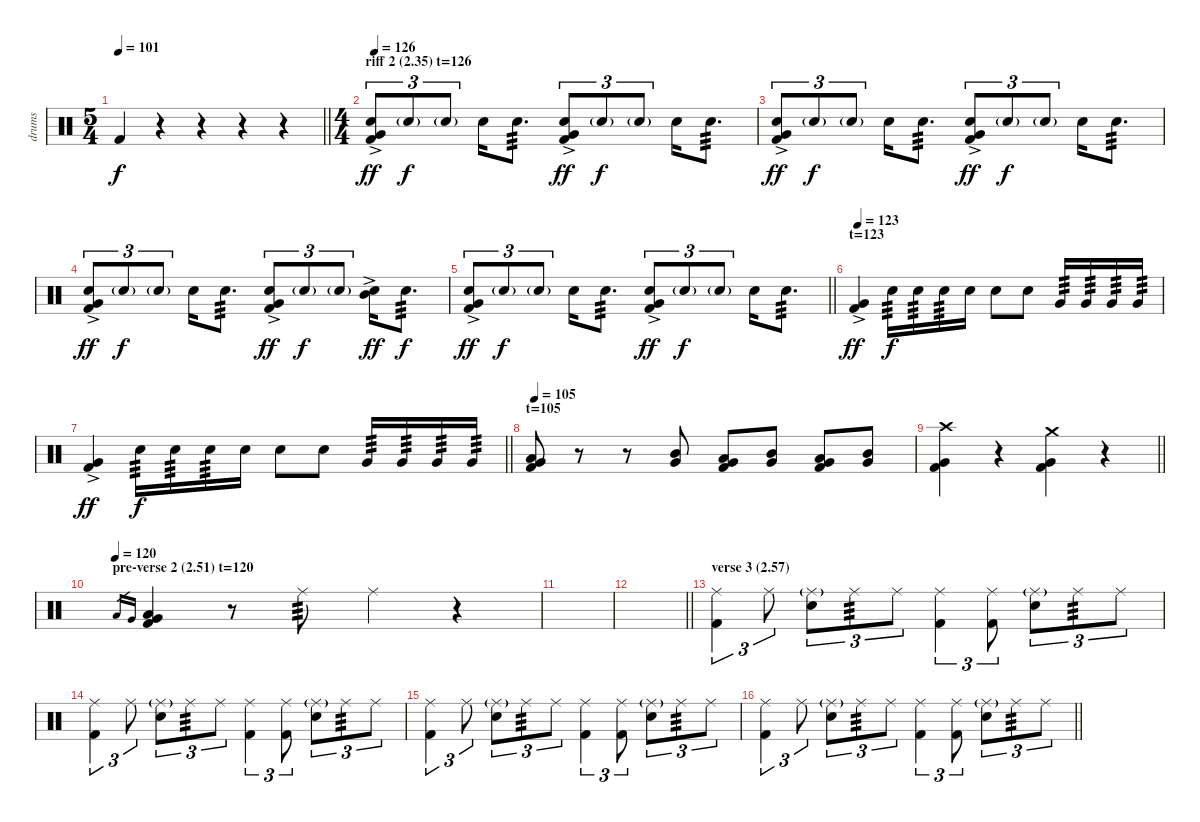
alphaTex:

\track ("drums" "drums") {instrument percussion}
\staff {score}
\articulation defaults
\ts (5 4)
\tempo 101
\clef neutral
\barLineRight lightlight
\ks c "Kick (hit) 2".4{dy f}
r.4 r.4 r.4 r.4 |
\ts (4 4)
\section ("" "riff 2 (2.35) t=126")
\tempo 126
("Very Low Tom (hit)"{ac} "Electric Snare (hit)" "Kick (hit) 2").8{tu (3 2) dy ff} "Electric Snare (hit)"{g}.8{tu (3 2) dy f} "Electric Snare (hit)"{g}.8{tu (3 2)} "Electric Snare (hit)".16 "Electric Snare (hit)".8{d tp 3} ("Very Low Tom (hit)"{ac} "Electric Snare (hit)" "Kick (hit) 2").8{tu (3 2) dy ff} "Electric Snare (hit)"{g}.8{tu (3 2) dy f} "Electric Snare (hit)"{g}.8{tu (3 2)} "Electric Snare (hit)".16 "Electric Snare (hit)".8{d tp 3} |
("Very Low Tom (hit)"{ac} "Electric Snare (hit)" "Kick (hit) 2").8{tu (3 2) dy ff} "Electric Snare (hit)"{g}.8{tu (3 2) dy f} "Electric Snare (hit)"{g}.8{tu (3 2)} "Electric Snare (hit)".16 "Electric Snare (hit)".8{d tp 3} ("Very Low Tom (hit)"{ac} "Electric Snare (hit)" "Kick (hit) 2").8{tu (3 2) dy ff} "Electric Snare (hit)"{g}.8{tu (3 2) dy f} "Electric Snare (hit)"{g}.8{tu (3 2)} "Electric Snare (hit)".16 "Electric Snare (hit)".8{d tp 3} |
("Very Low Tom (hit)"{ac} "Electric Snare (hit)" "Kick (hit) 2").8{tu (3 2) dy ff} "Electric Snare (hit)"{g}.8{tu (3 2) dy f} "Electric Snare (hit)"{g}.8{tu (3 2)} "Electric Snare (hit)".16 "Electric Snare (hit)".8{d tp 3} ("Very Low Tom (hit)"{ac} "Electric Snare (hit)" "Kick (hit) 2").8{tu (3 2) dy ff} "Electric Snare (hit)"{g}.8{tu (3 2) dy f} "Electric Snare (hit)"{g}.8{tu (3 2)} ("Mid Tom (hit)"{ac} "Electric Snare (hit)").16{dy ff} "Electric Snare (hit)".8{d tp 3 dy f} |
\barLineRight lightlight
("Very Low Tom (hit)"{ac} "Electric Snare (hit)" "Kick (hit) 2").8{tu (3 2) dy ff} "Electric Snare (hit)"{g}.8{tu (3 2) dy f} "Electric Snare (hit)"{g}.8{tu (3 2)} "Electric Snare (hit)".16 "Electric Snare (hit)".8{d tp 3} ("Very Low Tom (hit)"{ac} "Electric Snare (hit)" "Kick (hit) 2").8{tu (3 2) dy ff} "Electric Snare (hit)"{g}.8{tu (3 2) dy f} "Electric Snare (hit)"{g}.8{tu (3 2)} "Electric Snare (hit)".16 "Electric Snare (hit)".8{d tp 3} |
\section ("" "t=123")
\tempo 123
("Very Low Tom (hit)"{ac} "Kick (hit) 2").4{dy ff} "Electric Snare (hit)".16{tp 3 dy f} "Electric Snare (hit)".16{tp 3} "Electric Snare (hit)".16{tp 3} "Electric Snare (hit)".16 "Electric Snare (hit)".8 "Electric Snare (hit)".8 "Very Low Tom (hit)".16{tp 3} "Very Low Tom (hit)".16{tp 3} "Very Low Tom (hit)".16{tp 3} "Very Low Tom (hit)".16{tp 3} |
\barLineRight lightlight
("Very Low Tom (hit)"{ac} "Kick (hit) 2").4{dy ff} "Electric Snare (hit)".16{tp 3 dy f} "Electric Snare (hit)".16{tp 3} "Electric Snare (hit)".16{tp 3} "Electric Snare (hit)".16 "Electric Snare (hit)".8 "Electric Snare (hit)".8 "Very Low Tom (hit)".16{tp 3} "Very Low Tom (hit)".16{tp 3} "Very Low Tom (hit)".16{tp 3} "Very Low Tom (hit)".16{tp 3} |
\section ("" "t=105")
\tempo 105
("Low Tom (hit)" "Very Low Tom (hit)" "Kick (hit) 2").8 r.8 r.8 ("Mid Tom (hit)" "Very Low Tom (hit)").8 ("Low Tom (hit)" "Very Low Tom (hit)" "Kick (hit) 2").8 ("Mid Tom (hit)" "Very Low Tom (hit)").8 ("Low Tom (hit)" "Very Low Tom (hit)" "Kick (hit) 2").8 ("Mid Tom (hit)" "Very Low Tom (hit)").8 |
\barLineRight lightlight
("Crash high (hit)" "Very Low Tom (hit)" "Kick (hit) 2").4 r.4 ("Crash medium (hit)" "Very Low Tom (hit)" "Kick (hit) 2").4 r.4 |
\section ("" "pre-verse 2 (2.51) t=120")
\tempo (120)
"Low Tom (hit)".16{gr} "Very Low Tom (hit)".16{gr} ("Low Tom (hit)" "Very Low Tom (hit)" "Kick (hit) 2").4 r.8 "Ride (middle)".8{tp 3} "Ride (middle)".4 r.4 |
|
\barLineRight lightlight
|
\section ("" "verse 3 (2.57)")
("Ride (middle)" "Kick (hit) 2").4{tu (3 2)} "Ride (middle)".8{tu (3 2)} ("Ride (middle)"{g} "Electric Snare (hit)").8{tu (3 2)} "Ride (middle)".8{tu (3 2) tp 3} "Ride (middle)".8{tu (3 2)} ("Ride (middle)" "Kick (hit) 2").4{tu (3 2)} ("Ride (middle)" "Kick (hit) 2").8{tu (3 2)} ("Ride (middle)"{g} "Electric Snare (hit)").8{tu (3 2)} "Ride (middle)".8{tu (3 2) tp 3} "Ride (middle)".8{tu (3 2)} |
("Ride (middle)" "Kick (hit) 2").4{tu (3 2)} "Ride (middle)".8{tu (3 2)} ("Ride (middle)"{g} "Electric Snare (hit)").8{tu (3 2)} "Ride (middle)".8{tu (3 2) tp 3} "Ride (middle)".8{tu (3 2)} ("Ride (middle)" "Kick (hit) 2").4{tu (3 2)} ("Ride (middle)" "Kick (hit) 2").8{tu (3 2)} ("Ride (middle)"{g} "Electric Snare (hit)").8{tu (3 2)} "Ride (middle)".8{tu (3 2) tp 3} "Ride (middle)".8{tu (3 2)} |
("Ride (middle)" "Kick (hit) 2").4{tu (3 2)} "Ride (middle)".8{tu (3 2)} ("Ride (middle)"{g} "Electric Snare (hit)").8{tu (3 2)} "Ride (middle)".8{tu (3 2) tp 3} "Ride (middle)".8{tu (3 2)} ("Ride (middle)" "Kick (hit) 2").4{tu (3 2)} ("Ride (middle)" "Kick (hit) 2").8{tu (3 2)} ("Ride (middle)"{g} "Electric Snare (hit)").8{tu (3 2)} "Ride (middle)".8{tu (3 2) tp 3} "Ride (middle)".8{tu (3 2)} |
\barLineRight lightlight
("Ride (middle)" "Kick (hit) 2").4{tu (3 2)} "Ride (middle)".8{tu (3 2)} ("Ride (middle)"{g} "Electric Snare (hit)").8{tu (3 2)} "Ride (middle)".8{tu (3 2) tp 3} "Ride (middle)".8{tu (3 2)} ("Ride (middle)" "Kick (hit) 2").4{tu (3 2)} ("Ride (middle)" "Kick (hit) 2").8{tu (3 2)} ("Ride (middle)"{g} "Electric Snare (hit)").8{tu (3 2)} "Ride (middle)".8{tu (3 2) tp 3} "Ride (middle)".8{tu (3 2)}
